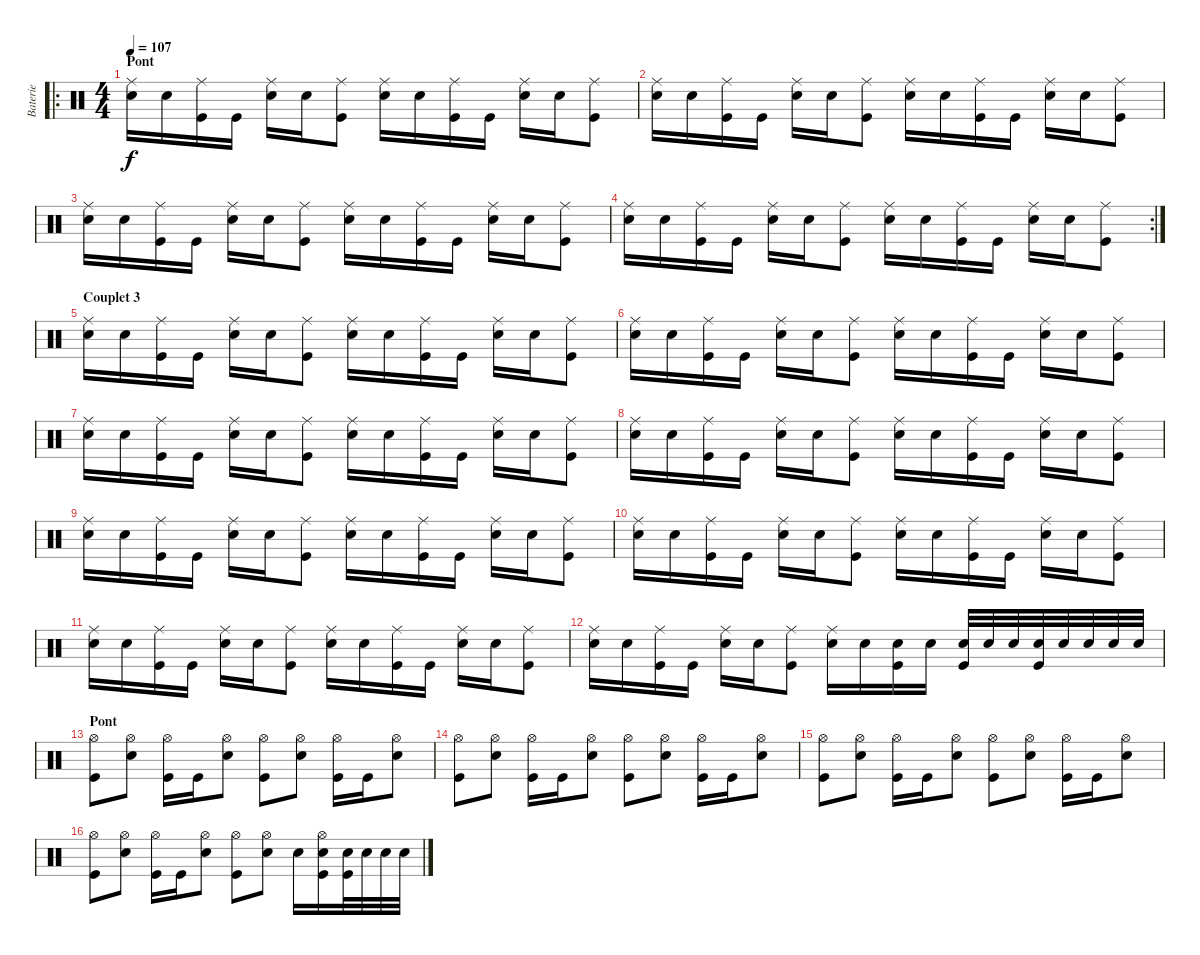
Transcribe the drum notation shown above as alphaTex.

\track ("Baterie" "Baterie") {instrument percussion}
\staff {score}
\articulation defaults
\ro
\ts (4 4)
\section ("" "Pont")
\tempo 107
\clef neutral
\ks c
("Ride (middle)" "Electric Snare (hit)").16{dy f} "Electric Snare (hit)".16 ("Ride (middle)" "Kick (hit)").16 "Kick (hit)".16 ("Ride (middle)" "Electric Snare (hit)").16 "Electric Snare (hit)".16 ("Ride (middle)" "Kick (hit)").8 ("Ride (middle)" "Electric Snare (hit)").16 "Electric Snare (hit)".16 ("Ride (middle)" "Kick (hit)").16 "Kick (hit)".16 ("Ride (middle)" "Electric Snare (hit)").16 "Electric Snare (hit)".16 ("Ride (middle)" "Kick (hit)").8 |
("Ride (middle)" "Electric Snare (hit)").16 "Electric Snare (hit)".16 ("Ride (middle)" "Kick (hit)").16 "Kick (hit)".16 ("Ride (middle)" "Electric Snare (hit)").16 "Electric Snare (hit)".16 ("Ride (middle)" "Kick (hit)").8 ("Ride (middle)" "Electric Snare (hit)").16 "Electric Snare (hit)".16 ("Ride (middle)" "Kick (hit)").16 "Kick (hit)".16 ("Ride (middle)" "Electric Snare (hit)").16 "Electric Snare (hit)".16 ("Ride (middle)" "Kick (hit)").8 |
("Ride (middle)" "Electric Snare (hit)").16 "Electric Snare (hit)".16 ("Ride (middle)" "Kick (hit)").16 "Kick (hit)".16 ("Ride (middle)" "Electric Snare (hit)").16 "Electric Snare (hit)".16 ("Ride (middle)" "Kick (hit)").8 ("Ride (middle)" "Electric Snare (hit)").16 "Electric Snare (hit)".16 ("Ride (middle)" "Kick (hit)").16 "Kick (hit)".16 ("Ride (middle)" "Electric Snare (hit)").16 "Electric Snare (hit)".16 ("Ride (middle)" "Kick (hit)").8 |
\rc 2
("Ride (middle)" "Electric Snare (hit)").16 "Electric Snare (hit)".16 ("Ride (middle)" "Kick (hit)").16 "Kick (hit)".16 ("Ride (middle)" "Electric Snare (hit)").16 "Electric Snare (hit)".16 ("Ride (middle)" "Kick (hit)").8 ("Ride (middle)" "Electric Snare (hit)").16 "Electric Snare (hit)".16 ("Ride (middle)" "Kick (hit)").16 "Kick (hit)".16 ("Ride (middle)" "Electric Snare (hit)").16 "Electric Snare (hit)".16 ("Ride (middle)" "Kick (hit)").8 |
\section ("" "Couplet 3")
("Ride (middle)" "Electric Snare (hit)").16 "Electric Snare (hit)".16 ("Ride (middle)" "Kick (hit)").16 "Kick (hit)".16 ("Ride (middle)" "Electric Snare (hit)").16 "Electric Snare (hit)".16 ("Ride (middle)" "Kick (hit)").8 ("Ride (middle)" "Electric Snare (hit)").16 "Electric Snare (hit)".16 ("Ride (middle)" "Kick (hit)").16 "Kick (hit)".16 ("Ride (middle)" "Electric Snare (hit)").16 "Electric Snare (hit)".16 ("Ride (middle)" "Kick (hit)").8 |
("Ride (middle)" "Electric Snare (hit)").16 "Electric Snare (hit)".16 ("Ride (middle)" "Kick (hit)").16 "Kick (hit)".16 ("Ride (middle)" "Electric Snare (hit)").16 "Electric Snare (hit)".16 ("Ride (middle)" "Kick (hit)").8 ("Ride (middle)" "Electric Snare (hit)").16 "Electric Snare (hit)".16 ("Ride (middle)" "Kick (hit)").16 "Kick (hit)".16 ("Ride (middle)" "Electric Snare (hit)").16 "Electric Snare (hit)".16 ("Ride (middle)" "Kick (hit)").8 |
("Ride (middle)" "Electric Snare (hit)").16 "Electric Snare (hit)".16 ("Ride (middle)" "Kick (hit)").16 "Kick (hit)".16 ("Ride (middle)" "Electric Snare (hit)").16 "Electric Snare (hit)".16 ("Ride (middle)" "Kick (hit)").8 ("Ride (middle)" "Electric Snare (hit)").16 "Electric Snare (hit)".16 ("Ride (middle)" "Kick (hit)").16 "Kick (hit)".16 ("Ride (middle)" "Electric Snare (hit)").16 "Electric Snare (hit)".16 ("Ride (middle)" "Kick (hit)").8 |
("Ride (middle)" "Electric Snare (hit)").16 "Electric Snare (hit)".16 ("Ride (middle)" "Kick (hit)").16 "Kick (hit)".16 ("Ride (middle)" "Electric Snare (hit)").16 "Electric Snare (hit)".16 ("Ride (middle)" "Kick (hit)").8 ("Ride (middle)" "Electric Snare (hit)").16 "Electric Snare (hit)".16 ("Ride (middle)" "Kick (hit)").16 "Kick (hit)".16 ("Ride (middle)" "Electric Snare (hit)").16 "Electric Snare (hit)".16 ("Ride (middle)" "Kick (hit)").8 |
("Ride (middle)" "Electric Snare (hit)").16 "Electric Snare (hit)".16 ("Ride (middle)" "Kick (hit)").16 "Kick (hit)".16 ("Ride (middle)" "Electric Snare (hit)").16 "Electric Snare (hit)".16 ("Ride (middle)" "Kick (hit)").8 ("Ride (middle)" "Electric Snare (hit)").16 "Electric Snare (hit)".16 ("Ride (middle)" "Kick (hit)").16 "Kick (hit)".16 ("Ride (middle)" "Electric Snare (hit)").16 "Electric Snare (hit)".16 ("Ride (middle)" "Kick (hit)").8 |
("Ride (middle)" "Electric Snare (hit)").16 "Electric Snare (hit)".16 ("Ride (middle)" "Kick (hit)").16 "Kick (hit)".16 ("Ride (middle)" "Electric Snare (hit)").16 "Electric Snare (hit)".16 ("Ride (middle)" "Kick (hit)").8 ("Ride (middle)" "Electric Snare (hit)").16 "Electric Snare (hit)".16 ("Ride (middle)" "Kick (hit)").16 "Kick (hit)".16 ("Ride (middle)" "Electric Snare (hit)").16 "Electric Snare (hit)".16 ("Ride (middle)" "Kick (hit)").8 |
("Ride (middle)" "Electric Snare (hit)").16 "Electric Snare (hit)".16 ("Ride (middle)" "Kick (hit)").16 "Kick (hit)".16 ("Ride (middle)" "Electric Snare (hit)").16 "Electric Snare (hit)".16 ("Ride (middle)" "Kick (hit)").8 ("Ride (middle)" "Electric Snare (hit)").16 "Electric Snare (hit)".16 ("Ride (middle)" "Kick (hit)").16 "Kick (hit)".16 ("Ride (middle)" "Electric Snare (hit)").16 "Electric Snare (hit)".16 ("Ride (middle)" "Kick (hit)").8 |
("Ride (middle)" "Electric Snare (hit)").16 "Electric Snare (hit)".16 ("Ride (middle)" "Kick (hit)").16 "Kick (hit)".16 ("Ride (middle)" "Electric Snare (hit)").16 "Electric Snare (hit)".16 ("Ride (middle)" "Kick (hit)").8 ("Ride (middle)" "Electric Snare (hit)").16 "Electric Snare (hit)".16 ("Electric Snare (hit)" "Kick (hit)").16 "Electric Snare (hit)".16 ("Electric Snare (hit)" "Kick (hit)").32 "Electric Snare (hit)".32 "Electric Snare (hit)".32 ("Electric Snare (hit)" "Kick (hit)").32 "Electric Snare (hit)".32 "Electric Snare (hit)".32 "Electric Snare (hit)".32 "Electric Snare (hit)".32 |
\section ("" "Pont")
("Hi-Hat (open)" "Kick (hit)").8 ("Hi-Hat (open)" "Electric Snare (hit)").8 ("Hi-Hat (open)" "Kick (hit)").16 "Kick (hit)".16 ("Hi-Hat (open)" "Electric Snare (hit)").8 ("Hi-Hat (open)" "Kick (hit)").8 ("Hi-Hat (open)" "Electric Snare (hit)").8 ("Hi-Hat (open)" "Kick (hit)").16 "Kick (hit)".16 ("Hi-Hat (open)" "Electric Snare (hit)").8 |
("Hi-Hat (open)" "Kick (hit)").8 ("Hi-Hat (open)" "Electric Snare (hit)").8 ("Hi-Hat (open)" "Kick (hit)").16 "Kick (hit)".16 ("Hi-Hat (open)" "Electric Snare (hit)").8 ("Hi-Hat (open)" "Kick (hit)").8 ("Hi-Hat (open)" "Electric Snare (hit)").8 ("Hi-Hat (open)" "Kick (hit)").16 "Kick (hit)".16 ("Hi-Hat (open)" "Electric Snare (hit)").8 |
("Hi-Hat (open)" "Kick (hit)").8 ("Hi-Hat (open)" "Electric Snare (hit)").8 ("Hi-Hat (open)" "Kick (hit)").16 "Kick (hit)".16 ("Hi-Hat (open)" "Electric Snare (hit)").8 ("Hi-Hat (open)" "Kick (hit)").8 ("Hi-Hat (open)" "Electric Snare (hit)").8 ("Hi-Hat (open)" "Kick (hit)").16 "Kick (hit)".16 ("Hi-Hat (open)" "Electric Snare (hit)").8 |
("Hi-Hat (open)" "Kick (hit)").8 ("Hi-Hat (open)" "Electric Snare (hit)").8 ("Hi-Hat (open)" "Kick (hit)").16 "Kick (hit)".16 ("Hi-Hat (open)" "Electric Snare (hit)").8 ("Hi-Hat (open)" "Kick (hit)").8 ("Hi-Hat (open)" "Electric Snare (hit)").8 "Electric Snare (hit)".16 ("Hi-Hat (open)" "Electric Snare (hit)" "Kick (hit)").16 ("Electric Snare (hit)" "Kick (hit)").32 "Electric Snare (hit)".32 "Electric Snare (hit)".32 "Electric Snare (hit)".32
